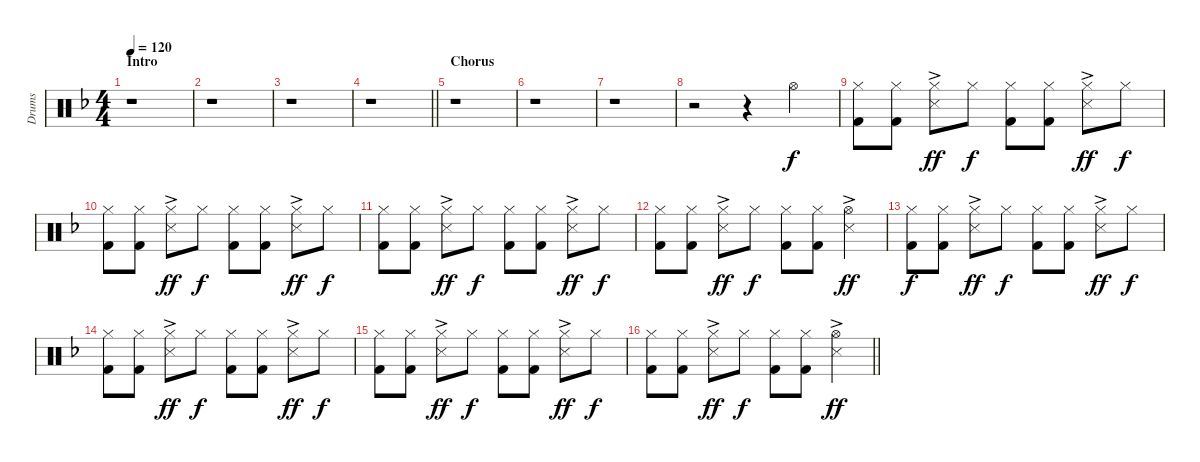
\track ("Drums" "Drums") {instrument percussion}
\staff {score}
\articulation defaults
\ts (4 4)
\section ("" "Intro")
\tempo 120
\clef neutral
\ks f
r.1{dy f} |
r.1 |
r.1 |
\barLineRight lightlight
r.1 |
\section ("" "Chorus")
r.1 |
r.1 |
r.1 |
r.2 r.4 "Hi-Hat (open)".4 |
("Hi-Hat (closed)" "Kick (hit) 2").8 ("Hi-Hat (closed)" "Kick (hit) 2").8 ("Hi-Hat (closed)" "Snare (side stick) 3"{ac}).8{dy ff} "Hi-Hat (closed)".8{dy f} ("Hi-Hat (closed)" "Kick (hit) 2").8 ("Hi-Hat (closed)" "Kick (hit) 2").8 ("Hi-Hat (closed)" "Snare (side stick) 3"{ac}).8{dy ff} "Hi-Hat (closed)".8{dy f} |
("Hi-Hat (closed)" "Kick (hit) 2").8 ("Hi-Hat (closed)" "Kick (hit) 2").8 ("Hi-Hat (closed)" "Snare (side stick) 3"{ac}).8{dy ff} "Hi-Hat (closed)".8{dy f} ("Hi-Hat (closed)" "Kick (hit) 2").8 ("Hi-Hat (closed)" "Kick (hit) 2").8 ("Hi-Hat (closed)" "Snare (side stick) 3"{ac}).8{dy ff} "Hi-Hat (closed)".8{dy f} |
("Hi-Hat (closed)" "Kick (hit) 2").8 ("Hi-Hat (closed)" "Kick (hit) 2").8 ("Hi-Hat (closed)" "Snare (side stick) 3"{ac}).8{dy ff} "Hi-Hat (closed)".8{dy f} ("Hi-Hat (closed)" "Kick (hit) 2").8 ("Hi-Hat (closed)" "Kick (hit) 2").8 ("Hi-Hat (closed)" "Snare (side stick) 3"{ac}).8{dy ff} "Hi-Hat (closed)".8{dy f} |
("Hi-Hat (closed)" "Kick (hit) 2").8 ("Hi-Hat (closed)" "Kick (hit) 2").8 ("Hi-Hat (closed)" "Snare (side stick) 3"{ac}).8{dy ff} "Hi-Hat (closed)".8{dy f} ("Hi-Hat (closed)" "Kick (hit) 2").8 ("Hi-Hat (closed)" "Kick (hit) 2").8 ("Hi-Hat (open)" "Snare (side stick) 3"{ac}).4{dy ff} |
("Hi-Hat (closed)" "Kick (hit) 2").8{dy f} ("Hi-Hat (closed)" "Kick (hit) 2").8 ("Hi-Hat (closed)" "Snare (side stick) 3"{ac}).8{dy ff} "Hi-Hat (closed)".8{dy f} ("Hi-Hat (closed)" "Kick (hit) 2").8 ("Hi-Hat (closed)" "Kick (hit) 2").8 ("Hi-Hat (closed)" "Snare (side stick) 3"{ac}).8{dy ff} "Hi-Hat (closed)".8{dy f} |
("Hi-Hat (closed)" "Kick (hit) 2").8 ("Hi-Hat (closed)" "Kick (hit) 2").8 ("Hi-Hat (closed)" "Snare (side stick) 3"{ac}).8{dy ff} "Hi-Hat (closed)".8{dy f} ("Hi-Hat (closed)" "Kick (hit) 2").8 ("Hi-Hat (closed)" "Kick (hit) 2").8 ("Hi-Hat (closed)" "Snare (side stick) 3"{ac}).8{dy ff} "Hi-Hat (closed)".8{dy f} |
("Hi-Hat (closed)" "Kick (hit) 2").8 ("Hi-Hat (closed)" "Kick (hit) 2").8 ("Hi-Hat (closed)" "Snare (side stick) 3"{ac}).8{dy ff} "Hi-Hat (closed)".8{dy f} ("Hi-Hat (closed)" "Kick (hit) 2").8 ("Hi-Hat (closed)" "Kick (hit) 2").8 ("Hi-Hat (closed)" "Snare (side stick) 3"{ac}).8{dy ff} "Hi-Hat (closed)".8{dy f} |
\barLineRight lightlight
("Hi-Hat (closed)" "Kick (hit) 2").8 ("Hi-Hat (closed)" "Kick (hit) 2").8 ("Hi-Hat (closed)" "Snare (side stick) 3"{ac}).8{dy ff} "Hi-Hat (closed)".8{dy f} ("Hi-Hat (closed)" "Kick (hit) 2").8 ("Hi-Hat (closed)" "Kick (hit) 2").8 ("Hi-Hat (open)" "Snare (side stick) 3"{ac}).4{dy ff}
